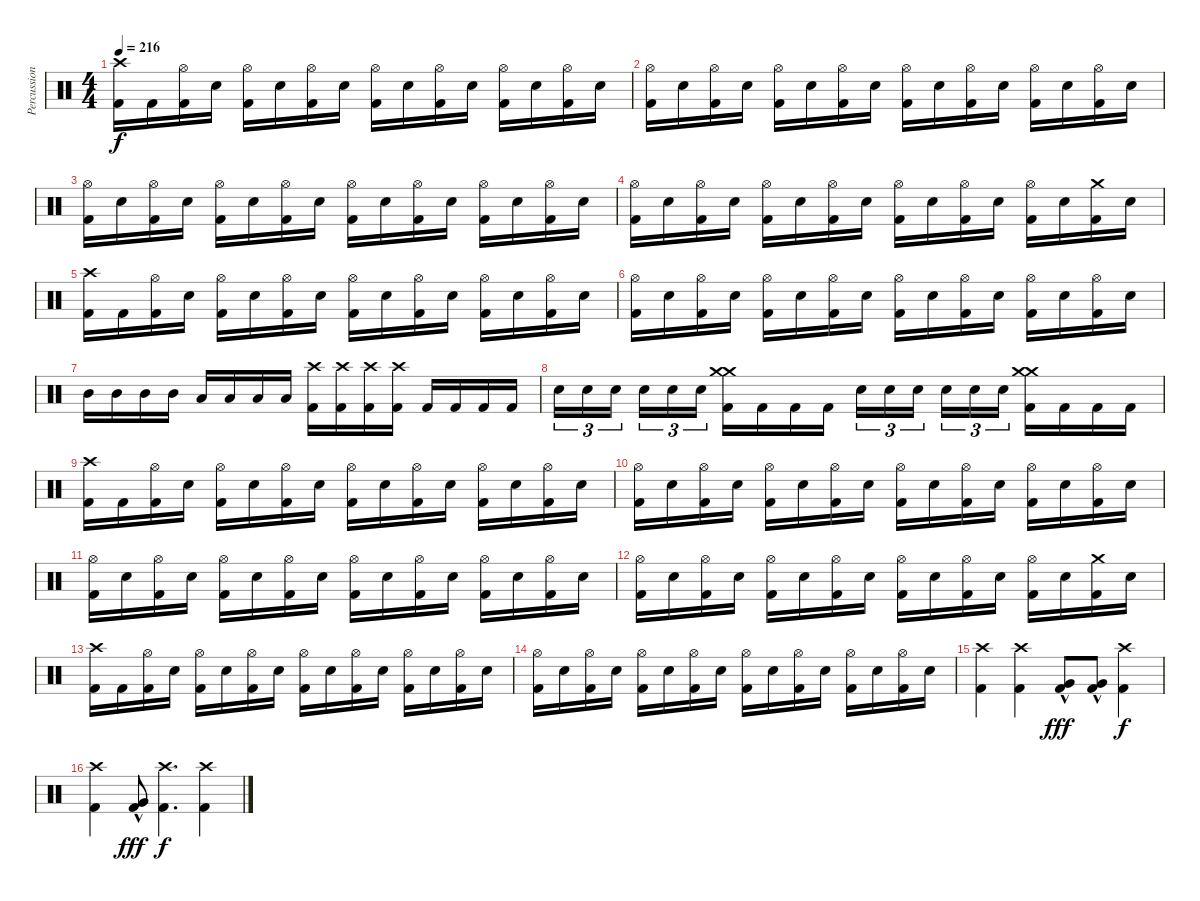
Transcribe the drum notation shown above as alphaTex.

\track ("Percussions" "Percussion") {instrument percussion}
\staff {score}
\articulation defaults
\ts (4 4)
\tempo 216
\clef neutral
\ks c
("Crash high (hit)" "Kick (hit) 2").16{dy f} "Kick (hit) 2".16 ("Hi-Hat (open)" "Kick (hit) 2").16 "Electric Snare (hit)".16 ("Hi-Hat (open)" "Kick (hit) 2").16 "Electric Snare (hit)".16 ("Hi-Hat (open)" "Kick (hit) 2").16 "Electric Snare (hit)".16 ("Hi-Hat (open)" "Kick (hit) 2").16 "Electric Snare (hit)".16 ("Hi-Hat (open)" "Kick (hit) 2").16 "Electric Snare (hit)".16 ("Hi-Hat (open)" "Kick (hit) 2").16 "Electric Snare (hit)".16 ("Hi-Hat (open)" "Kick (hit) 2").16 "Electric Snare (hit)".16 |
("Hi-Hat (open)" "Kick (hit) 2").16 "Electric Snare (hit)".16 ("Hi-Hat (open)" "Kick (hit) 2").16 "Electric Snare (hit)".16 ("Hi-Hat (open)" "Kick (hit) 2").16 "Electric Snare (hit)".16 ("Hi-Hat (open)" "Kick (hit) 2").16 "Electric Snare (hit)".16 ("Hi-Hat (open)" "Kick (hit) 2").16 "Electric Snare (hit)".16 ("Hi-Hat (open)" "Kick (hit) 2").16 "Electric Snare (hit)".16 ("Hi-Hat (open)" "Kick (hit) 2").16 "Electric Snare (hit)".16 ("Hi-Hat (open)" "Kick (hit) 2").16 "Electric Snare (hit)".16 |
("Hi-Hat (open)" "Kick (hit) 2").16 "Electric Snare (hit)".16 ("Hi-Hat (open)" "Kick (hit) 2").16 "Electric Snare (hit)".16 ("Hi-Hat (open)" "Kick (hit) 2").16 "Electric Snare (hit)".16 ("Hi-Hat (open)" "Kick (hit) 2").16 "Electric Snare (hit)".16 ("Hi-Hat (open)" "Kick (hit) 2").16 "Electric Snare (hit)".16 ("Hi-Hat (open)" "Kick (hit) 2").16 "Electric Snare (hit)".16 ("Hi-Hat (open)" "Kick (hit) 2").16 "Electric Snare (hit)".16 ("Hi-Hat (open)" "Kick (hit) 2").16 "Electric Snare (hit)".16 |
("Hi-Hat (open)" "Kick (hit) 2").16 "Electric Snare (hit)".16 ("Hi-Hat (open)" "Kick (hit) 2").16 "Electric Snare (hit)".16 ("Hi-Hat (open)" "Kick (hit) 2").16 "Electric Snare (hit)".16 ("Hi-Hat (open)" "Kick (hit) 2").16 "Electric Snare (hit)".16 ("Hi-Hat (open)" "Kick (hit) 2").16 "Electric Snare (hit)".16 ("Hi-Hat (open)" "Kick (hit) 2").16 "Electric Snare (hit)".16 ("Hi-Hat (open)" "Kick (hit) 2").16 "Electric Snare (hit)".16 ("Crash medium (hit)" "Kick (hit) 2").16 "Electric Snare (hit)".16 |
("Crash high (hit)" "Kick (hit) 2").16 "Kick (hit) 2".16 ("Hi-Hat (open)" "Kick (hit) 2").16 "Electric Snare (hit)".16 ("Hi-Hat (open)" "Kick (hit) 2").16 "Electric Snare (hit)".16 ("Hi-Hat (open)" "Kick (hit) 2").16 "Electric Snare (hit)".16 ("Hi-Hat (open)" "Kick (hit) 2").16 "Electric Snare (hit)".16 ("Hi-Hat (open)" "Kick (hit) 2").16 "Electric Snare (hit)".16 ("Hi-Hat (open)" "Kick (hit) 2").16 "Electric Snare (hit)".16 ("Hi-Hat (open)" "Kick (hit) 2").16 "Electric Snare (hit)".16 |
("Hi-Hat (open)" "Kick (hit) 2").16 "Electric Snare (hit)".16 ("Hi-Hat (open)" "Kick (hit) 2").16 "Electric Snare (hit)".16 ("Hi-Hat (open)" "Kick (hit) 2").16 "Electric Snare (hit)".16 ("Hi-Hat (open)" "Kick (hit) 2").16 "Electric Snare (hit)".16 ("Hi-Hat (open)" "Kick (hit) 2").16 "Electric Snare (hit)".16 ("Hi-Hat (open)" "Kick (hit) 2").16 "Electric Snare (hit)".16 ("Hi-Hat (open)" "Kick (hit) 2").16 "Electric Snare (hit)".16 ("Hi-Hat (open)" "Kick (hit) 2").16 "Electric Snare (hit)".16 |
"Mid Tom (hit)".16 "Mid Tom (hit)".16 "Mid Tom (hit)".16 "Mid Tom (hit)".16 "Low Tom (hit)".16 "Low Tom (hit)".16 "Low Tom (hit)".16 "Low Tom (hit)".16 ("Crash high (hit)" "Kick (hit) 2").16 ("Crash high (hit)" "Kick (hit) 2").16 ("Crash high (hit)" "Kick (hit) 2").16 ("Crash high (hit)" "Kick (hit) 2").16 "Kick (hit) 2".16 "Kick (hit) 2".16 "Kick (hit) 2".16 "Kick (hit) 2".16 |
"Electric Snare (hit)".16{tu (3 2)} "Electric Snare (hit)".16{tu (3 2)} "Electric Snare (hit)".16{tu (3 2) beam splitsecondary} "Electric Snare (hit)".16{tu (3 2)} "Electric Snare (hit)".16{tu (3 2)} "Electric Snare (hit)".16{tu (3 2)} ("Crash medium (hit)" "Crash medium (hit)" "Kick (hit) 2").16 "Kick (hit) 2".16 "Kick (hit) 2".16 "Kick (hit) 2".16 "Electric Snare (hit)".16{tu (3 2)} "Electric Snare (hit)".16{tu (3 2)} "Electric Snare (hit)".16{tu (3 2) beam splitsecondary} "Electric Snare (hit)".16{tu (3 2)} "Electric Snare (hit)".16{tu (3 2)} "Electric Snare (hit)".16{tu (3 2)} ("Crash medium (hit)" "Crash medium (hit)" "Kick (hit) 2").16 "Kick (hit) 2".16 "Kick (hit) 2".16 "Kick (hit) 2".16 |
("Crash high (hit)" "Kick (hit) 2").16 "Kick (hit) 2".16 ("Hi-Hat (open)" "Kick (hit) 2").16 "Electric Snare (hit)".16 ("Hi-Hat (open)" "Kick (hit) 2").16 "Electric Snare (hit)".16 ("Hi-Hat (open)" "Kick (hit) 2").16 "Electric Snare (hit)".16 ("Hi-Hat (open)" "Kick (hit) 2").16 "Electric Snare (hit)".16 ("Hi-Hat (open)" "Kick (hit) 2").16 "Electric Snare (hit)".16 ("Hi-Hat (open)" "Kick (hit) 2").16 "Electric Snare (hit)".16 ("Hi-Hat (open)" "Kick (hit) 2").16 "Electric Snare (hit)".16 |
("Hi-Hat (open)" "Kick (hit) 2").16 "Electric Snare (hit)".16 ("Hi-Hat (open)" "Kick (hit) 2").16 "Electric Snare (hit)".16 ("Hi-Hat (open)" "Kick (hit) 2").16 "Electric Snare (hit)".16 ("Hi-Hat (open)" "Kick (hit) 2").16 "Electric Snare (hit)".16 ("Hi-Hat (open)" "Kick (hit) 2").16 "Electric Snare (hit)".16 ("Hi-Hat (open)" "Kick (hit) 2").16 "Electric Snare (hit)".16 ("Hi-Hat (open)" "Kick (hit) 2").16 "Electric Snare (hit)".16 ("Hi-Hat (open)" "Kick (hit) 2").16 "Electric Snare (hit)".16 |
("Hi-Hat (open)" "Kick (hit) 2").16 "Electric Snare (hit)".16 ("Hi-Hat (open)" "Kick (hit) 2").16 "Electric Snare (hit)".16 ("Hi-Hat (open)" "Kick (hit) 2").16 "Electric Snare (hit)".16 ("Hi-Hat (open)" "Kick (hit) 2").16 "Electric Snare (hit)".16 ("Hi-Hat (open)" "Kick (hit) 2").16 "Electric Snare (hit)".16 ("Hi-Hat (open)" "Kick (hit) 2").16 "Electric Snare (hit)".16 ("Hi-Hat (open)" "Kick (hit) 2").16 "Electric Snare (hit)".16 ("Hi-Hat (open)" "Kick (hit) 2").16 "Electric Snare (hit)".16 |
("Hi-Hat (open)" "Kick (hit) 2").16 "Electric Snare (hit)".16 ("Hi-Hat (open)" "Kick (hit) 2").16 "Electric Snare (hit)".16 ("Hi-Hat (open)" "Kick (hit) 2").16 "Electric Snare (hit)".16 ("Hi-Hat (open)" "Kick (hit) 2").16 "Electric Snare (hit)".16 ("Hi-Hat (open)" "Kick (hit) 2").16 "Electric Snare (hit)".16 ("Hi-Hat (open)" "Kick (hit) 2").16 "Electric Snare (hit)".16 ("Hi-Hat (open)" "Kick (hit) 2").16 "Electric Snare (hit)".16 ("Crash medium (hit)" "Kick (hit) 2").16 "Electric Snare (hit)".16 |
("Crash high (hit)" "Kick (hit) 2").16 "Kick (hit) 2".16 ("Hi-Hat (open)" "Kick (hit) 2").16 "Electric Snare (hit)".16 ("Hi-Hat (open)" "Kick (hit) 2").16 "Electric Snare (hit)".16 ("Hi-Hat (open)" "Kick (hit) 2").16 "Electric Snare (hit)".16 ("Hi-Hat (open)" "Kick (hit) 2").16 "Electric Snare (hit)".16 ("Hi-Hat (open)" "Kick (hit) 2").16 "Electric Snare (hit)".16 ("Hi-Hat (open)" "Kick (hit) 2").16 "Electric Snare (hit)".16 ("Hi-Hat (open)" "Kick (hit) 2").16 "Electric Snare (hit)".16 |
("Hi-Hat (open)" "Kick (hit) 2").16 "Electric Snare (hit)".16 ("Hi-Hat (open)" "Kick (hit) 2").16 "Electric Snare (hit)".16 ("Hi-Hat (open)" "Kick (hit) 2").16 "Electric Snare (hit)".16 ("Hi-Hat (open)" "Kick (hit) 2").16 "Electric Snare (hit)".16 ("Hi-Hat (open)" "Kick (hit) 2").16 "Electric Snare (hit)".16 ("Hi-Hat (open)" "Kick (hit) 2").16 "Electric Snare (hit)".16 ("Hi-Hat (open)" "Kick (hit) 2").16 "Electric Snare (hit)".16 ("Hi-Hat (open)" "Kick (hit) 2").16 "Electric Snare (hit)".16 |
("Crash high (hit)" "Kick (hit) 2").4 ("Crash high (hit)" "Kick (hit) 2").4 ("Very Low Tom (hit)"{hac} "Kick (hit) 2").8{dy fff} ("Very Low Tom (hit)"{hac} "Kick (hit) 2").8 ("Crash high (hit)" "Kick (hit) 2").4{dy f} |
("Crash high (hit)" "Kick (hit) 2").4 ("Very Low Tom (hit)"{hac} "Kick (hit) 2"{hac}).8{dy fff} ("Crash high (hit)" "Kick (hit) 2").4{d dy f} ("Crash high (hit)" "Kick (hit) 2").4
